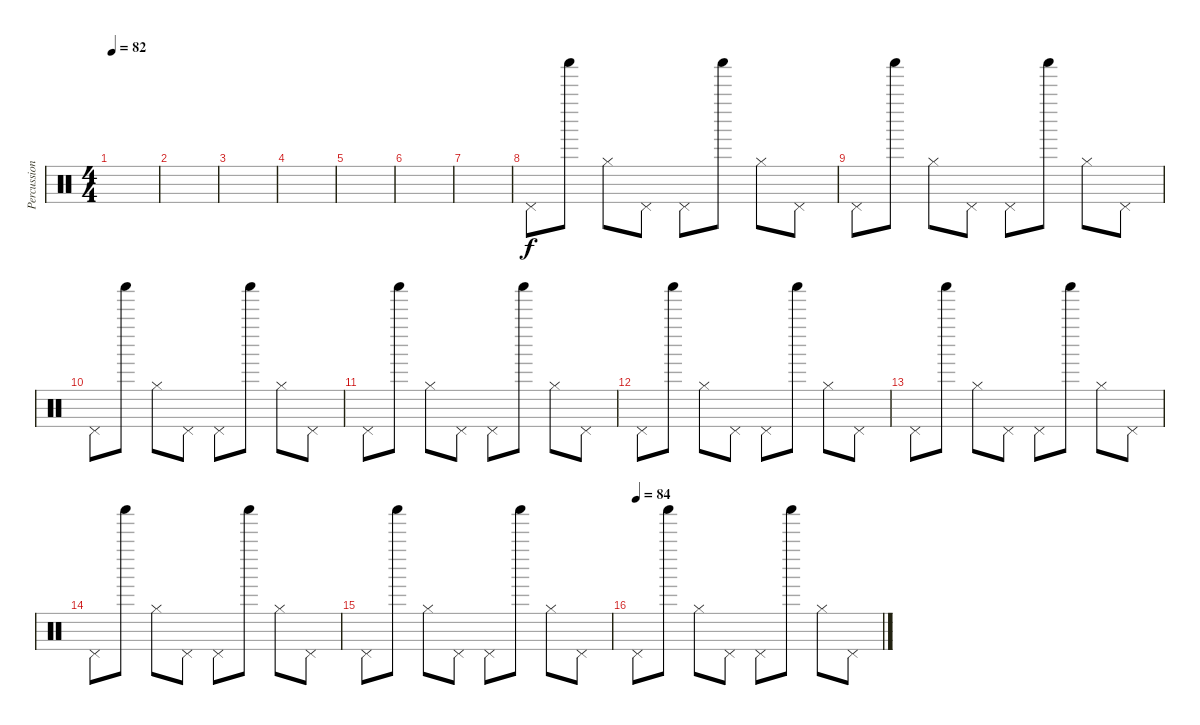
\track ("Percussion" "Percussion") {instrument percussion}
\staff {score}
\articulation defaults
\ts (4 4)
\tempo 82
\clef neutral
\ks c
|
|
|
|
|
|
|
"Pedal Hi-Hat (hit)".8 "Shaker (hit)".8 "Hi-Hat (closed)".8 "Pedal Hi-Hat (hit)".8 "Pedal Hi-Hat (hit)".8 "Shaker (hit)".8 "Hi-Hat (closed)".8 "Pedal Hi-Hat (hit)".8 |
"Pedal Hi-Hat (hit)".8 "Shaker (hit)".8 "Hi-Hat (closed)".8 "Pedal Hi-Hat (hit)".8 "Pedal Hi-Hat (hit)".8 "Shaker (hit)".8 "Hi-Hat (closed)".8 "Pedal Hi-Hat (hit)".8 |
"Pedal Hi-Hat (hit)".8 "Shaker (hit)".8 "Hi-Hat (closed)".8 "Pedal Hi-Hat (hit)".8 "Pedal Hi-Hat (hit)".8 "Shaker (hit)".8 "Hi-Hat (closed)".8 "Pedal Hi-Hat (hit)".8 |
"Pedal Hi-Hat (hit)".8 "Shaker (hit)".8 "Hi-Hat (closed)".8 "Pedal Hi-Hat (hit)".8 "Pedal Hi-Hat (hit)".8 "Shaker (hit)".8 "Hi-Hat (closed)".8 "Pedal Hi-Hat (hit)".8 |
"Pedal Hi-Hat (hit)".8 "Shaker (hit)".8 "Hi-Hat (closed)".8 "Pedal Hi-Hat (hit)".8 "Pedal Hi-Hat (hit)".8 "Shaker (hit)".8 "Hi-Hat (closed)".8 "Pedal Hi-Hat (hit)".8 |
"Pedal Hi-Hat (hit)".8 "Shaker (hit)".8 "Hi-Hat (closed)".8 "Pedal Hi-Hat (hit)".8 "Pedal Hi-Hat (hit)".8 "Shaker (hit)".8 "Hi-Hat (closed)".8 "Pedal Hi-Hat (hit)".8 |
"Pedal Hi-Hat (hit)".8 "Shaker (hit)".8 "Hi-Hat (closed)".8 "Pedal Hi-Hat (hit)".8 "Pedal Hi-Hat (hit)".8 "Shaker (hit)".8 "Hi-Hat (closed)".8 "Pedal Hi-Hat (hit)".8 |
"Pedal Hi-Hat (hit)".8 "Shaker (hit)".8 "Hi-Hat (closed)".8 "Pedal Hi-Hat (hit)".8 "Pedal Hi-Hat (hit)".8 "Shaker (hit)".8 "Hi-Hat (closed)".8 "Pedal Hi-Hat (hit)".8 |
\tempo (84)
"Pedal Hi-Hat (hit)".8 "Shaker (hit)".8 "Hi-Hat (closed)".8 "Pedal Hi-Hat (hit)".8 "Pedal Hi-Hat (hit)".8 "Shaker (hit)".8 "Hi-Hat (closed)".8 "Pedal Hi-Hat (hit)".8
